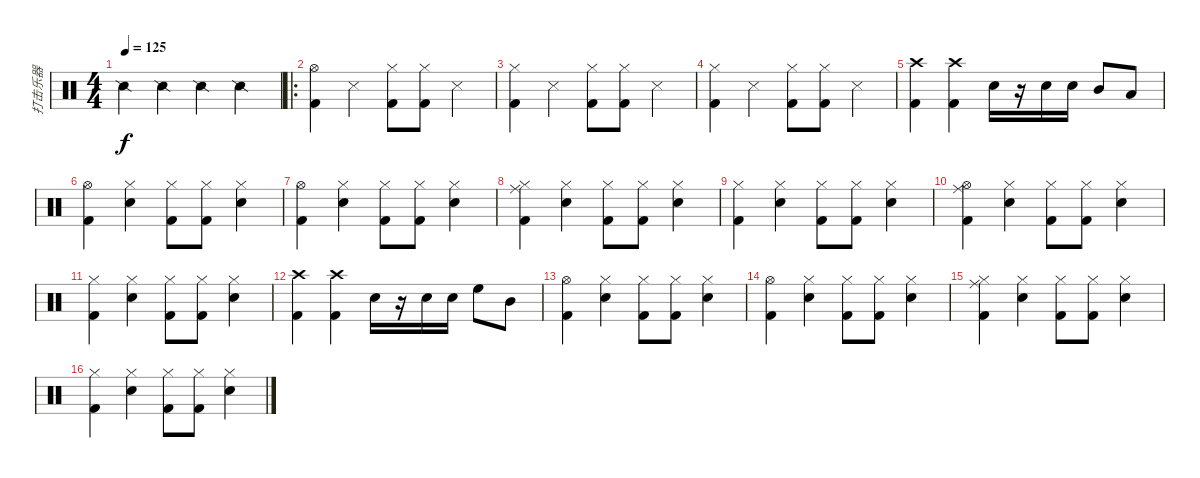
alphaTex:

\track ("打击乐器" "打击乐器") {instrument percussion}
\staff {score}
\articulation defaults
\ts (4 4)
\tempo 125
\clef neutral
\ks c "Snare (side stick) 2".4{dy f} "Snare (side stick) 2".4 "Snare (side stick) 2".4 "Snare (side stick) 2".4
|
\ro
("Hi-Hat (open)" "Kick (hit) 2").4 "Snare (side stick) 3".4 ("Hi-Hat (closed)" "Kick (hit) 2").8 ("Hi-Hat (closed)" "Kick (hit) 2").8 "Snare (side stick) 3".4 |
("Hi-Hat (closed)" "Kick (hit) 2").4 "Snare (side stick) 3".4 ("Hi-Hat (closed)" "Kick (hit) 2").8 ("Hi-Hat (closed)" "Kick (hit) 2").8 "Snare (side stick) 3".4 |
("Hi-Hat (closed)" "Kick (hit) 2").4 "Snare (side stick) 3".4 ("Hi-Hat (closed)" "Kick (hit) 2").8 ("Hi-Hat (closed)" "Kick (hit) 2").8 "Snare (side stick) 3".4 |
("Kick (hit) 2" "Crash high (hit)").4 ("Crash high (hit)" "Kick (hit) 2").4 "Snare (hit) 2".16 r.16 "Snare (hit) 2".16 "Snare (hit) 2".16 "Mid Tom (hit)".8 "Low Tom (hit)".8 |
("Hi-Hat (open)" "Kick (hit) 2").4 ("Hi-Hat (closed)" "Snare (hit) 2").4 ("Hi-Hat (closed)" "Kick (hit) 2").8 ("Hi-Hat (closed)" "Kick (hit) 2").8 ("Hi-Hat (closed)" "Snare (hit) 2").4 |
("Hi-Hat (open)" "Kick (hit) 2").4 ("Hi-Hat (closed)" "Snare (hit) 2").4 ("Hi-Hat (closed)" "Kick (hit) 2").8 ("Hi-Hat (closed)" "Kick (hit) 2").8 ("Hi-Hat (closed)" "Snare (hit) 2").4 |
("Ride (middle)" "Hi-Hat (closed)" "Kick (hit) 2").4 ("Hi-Hat (closed)" "Snare (hit) 2").4 ("Hi-Hat (closed)" "Kick (hit) 2").8 ("Hi-Hat (closed)" "Kick (hit) 2").8 ("Hi-Hat (closed)" "Snare (hit) 2").4 |
("Hi-Hat (closed)" "Kick (hit) 2").4 ("Hi-Hat (closed)" "Snare (hit) 2").4 ("Hi-Hat (closed)" "Kick (hit) 2").8 ("Hi-Hat (closed)" "Kick (hit) 2").8 ("Hi-Hat (closed)" "Snare (hit) 2").4 |
("Ride (middle)" "Hi-Hat (open)" "Kick (hit) 2").4 ("Hi-Hat (closed)" "Snare (hit) 2").4 ("Hi-Hat (closed)" "Kick (hit) 2").8 ("Hi-Hat (closed)" "Kick (hit) 2").8 ("Hi-Hat (closed)" "Snare (hit) 2").4 |
("Hi-Hat (closed)" "Kick (hit) 2").4 ("Hi-Hat (closed)" "Snare (hit) 2").4 ("Hi-Hat (closed)" "Kick (hit) 2").8 ("Hi-Hat (closed)" "Kick (hit) 2").8 ("Hi-Hat (closed)" "Snare (hit) 2").4 |
("Kick (hit) 2" "Crash high (hit)").4 ("Crash high (hit)" "Kick (hit) 2").4 "Snare (hit) 2".16 r.16 "Snare (hit) 2".16 "Snare (hit) 2".16 "High Floor Tom (hit)".8 "Mid Tom (hit)".8 |
("Hi-Hat (open)" "Kick (hit) 2").4 ("Hi-Hat (closed)" "Snare (hit) 2").4 ("Hi-Hat (closed)" "Kick (hit) 2").8 ("Hi-Hat (closed)" "Kick (hit) 2").8 ("Hi-Hat (closed)" "Snare (hit) 2").4 |
("Hi-Hat (open)" "Kick (hit) 2").4 ("Hi-Hat (closed)" "Snare (hit) 2").4 ("Hi-Hat (closed)" "Kick (hit) 2").8 ("Hi-Hat (closed)" "Kick (hit) 2").8 ("Hi-Hat (closed)" "Snare (hit) 2").4 |
("Ride (middle)" "Hi-Hat (closed)" "Kick (hit) 2").4 ("Hi-Hat (closed)" "Snare (hit) 2").4 ("Hi-Hat (closed)" "Kick (hit) 2").8 ("Hi-Hat (closed)" "Kick (hit) 2").8 ("Hi-Hat (closed)" "Snare (hit) 2").4 |
("Hi-Hat (closed)" "Kick (hit) 2").4 ("Hi-Hat (closed)" "Snare (hit) 2").4 ("Hi-Hat (closed)" "Kick (hit) 2").8 ("Hi-Hat (closed)" "Kick (hit) 2").8 ("Hi-Hat (closed)" "Snare (hit) 2").4
